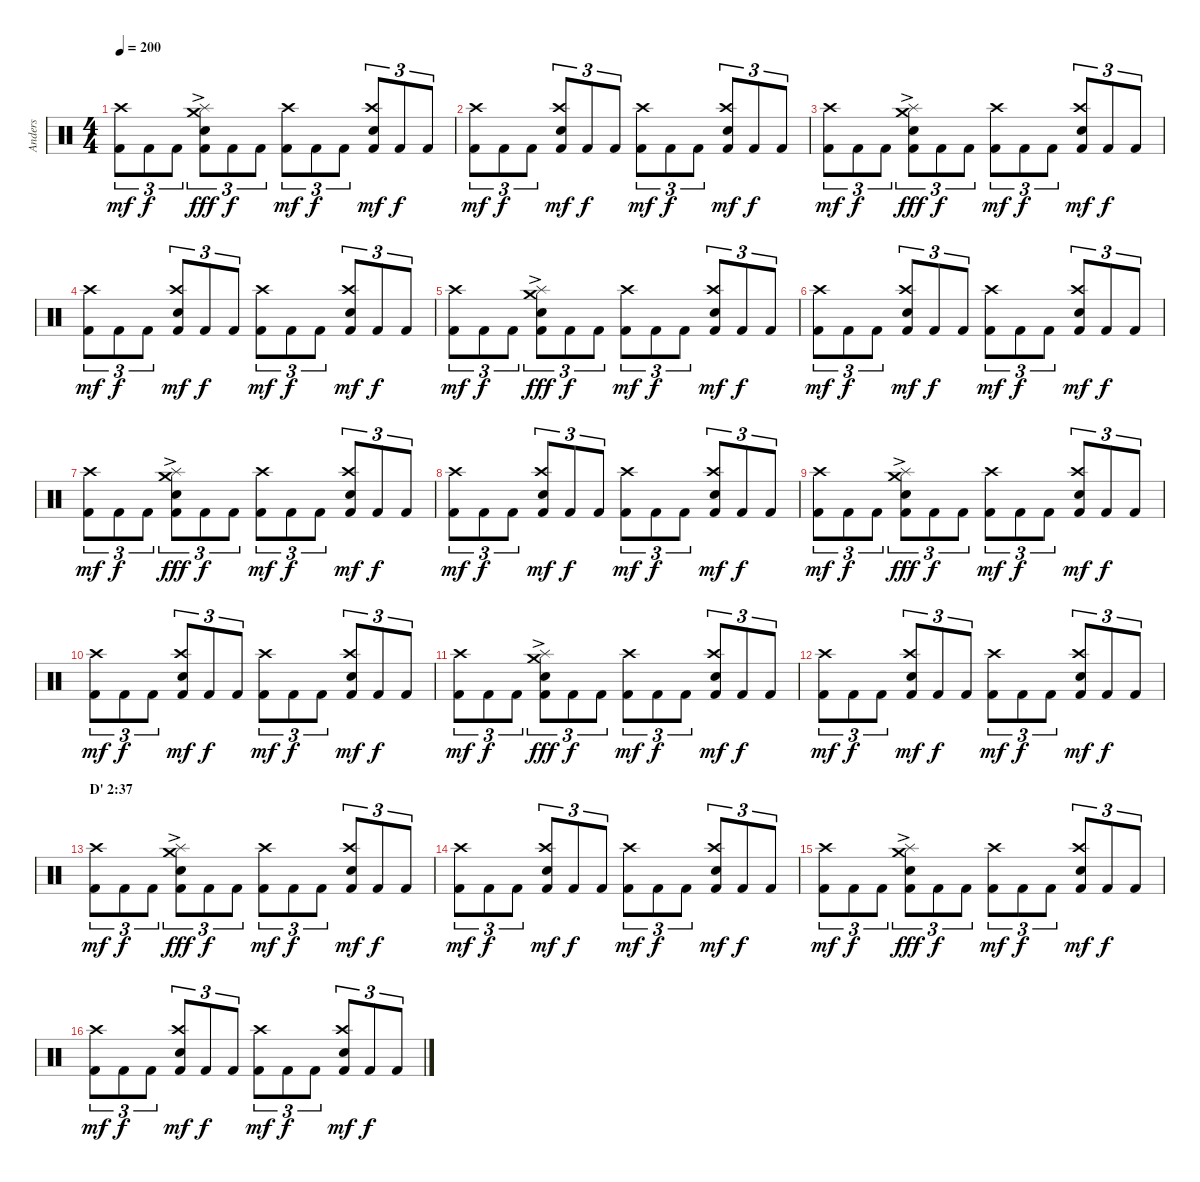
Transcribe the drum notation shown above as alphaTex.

\track ("Anders" "Anders") {instrument percussion}
\staff {score}
\articulation defaults
\ts (4 4)
\tempo 200
\clef neutral
\ks c
("Kick (hit) 2" "Crash high (hit)").8{tu (3 2) dy mf} "Kick (hit) 2".8{tu (3 2) dy f} "Kick (hit) 2".8{tu (3 2)} ("Kick (hit) 2" "Electric Snare (hit)" "Splash (hit)" "Crash medium (hit)"{ac}).8{tu (3 2) dy fff} "Kick (hit) 2".8{tu (3 2) dy f} "Kick (hit) 2".8{tu (3 2)} ("Kick (hit) 2" "Crash high (hit)").8{tu (3 2) dy mf} "Kick (hit) 2".8{tu (3 2) dy f} "Kick (hit) 2".8{tu (3 2)} ("Kick (hit) 2" "Electric Snare (hit)" "Crash high (hit)").8{tu (3 2) dy mf} "Kick (hit) 2".8{tu (3 2) dy f} "Kick (hit) 2".8{tu (3 2)} |
("Kick (hit) 2" "Crash high (hit)").8{tu (3 2) dy mf} "Kick (hit) 2".8{tu (3 2) dy f} "Kick (hit) 2".8{tu (3 2)} ("Kick (hit) 2" "Electric Snare (hit)" "Crash high (hit)").8{tu (3 2) dy mf} "Kick (hit) 2".8{tu (3 2) dy f} "Kick (hit) 2".8{tu (3 2)} ("Kick (hit) 2" "Crash high (hit)").8{tu (3 2) dy mf} "Kick (hit) 2".8{tu (3 2) dy f} "Kick (hit) 2".8{tu (3 2)} ("Kick (hit) 2" "Electric Snare (hit)" "Crash high (hit)").8{tu (3 2) dy mf} "Kick (hit) 2".8{tu (3 2) dy f} "Kick (hit) 2".8{tu (3 2)} |
("Kick (hit) 2" "Crash high (hit)").8{tu (3 2) dy mf} "Kick (hit) 2".8{tu (3 2) dy f} "Kick (hit) 2".8{tu (3 2)} ("Kick (hit) 2" "Electric Snare (hit)" "Splash (hit)" "Crash medium (hit)"{ac}).8{tu (3 2) dy fff} "Kick (hit) 2".8{tu (3 2) dy f} "Kick (hit) 2".8{tu (3 2)} ("Kick (hit) 2" "Crash high (hit)").8{tu (3 2) dy mf} "Kick (hit) 2".8{tu (3 2) dy f} "Kick (hit) 2".8{tu (3 2)} ("Kick (hit) 2" "Electric Snare (hit)" "Crash high (hit)").8{tu (3 2) dy mf} "Kick (hit) 2".8{tu (3 2) dy f} "Kick (hit) 2".8{tu (3 2)} |
("Kick (hit) 2" "Crash high (hit)").8{tu (3 2) dy mf} "Kick (hit) 2".8{tu (3 2) dy f} "Kick (hit) 2".8{tu (3 2)} ("Kick (hit) 2" "Electric Snare (hit)" "Crash high (hit)").8{tu (3 2) dy mf} "Kick (hit) 2".8{tu (3 2) dy f} "Kick (hit) 2".8{tu (3 2)} ("Kick (hit) 2" "Crash high (hit)").8{tu (3 2) dy mf} "Kick (hit) 2".8{tu (3 2) dy f} "Kick (hit) 2".8{tu (3 2)} ("Kick (hit) 2" "Electric Snare (hit)" "Crash high (hit)").8{tu (3 2) dy mf} "Kick (hit) 2".8{tu (3 2) dy f} "Kick (hit) 2".8{tu (3 2)} |
("Kick (hit) 2" "Crash high (hit)").8{tu (3 2) dy mf} "Kick (hit) 2".8{tu (3 2) dy f} "Kick (hit) 2".8{tu (3 2)} ("Kick (hit) 2" "Electric Snare (hit)" "Splash (hit)" "Crash medium (hit)"{ac}).8{tu (3 2) dy fff} "Kick (hit) 2".8{tu (3 2) dy f} "Kick (hit) 2".8{tu (3 2)} ("Kick (hit) 2" "Crash high (hit)").8{tu (3 2) dy mf} "Kick (hit) 2".8{tu (3 2) dy f} "Kick (hit) 2".8{tu (3 2)} ("Kick (hit) 2" "Electric Snare (hit)" "Crash high (hit)").8{tu (3 2) dy mf} "Kick (hit) 2".8{tu (3 2) dy f} "Kick (hit) 2".8{tu (3 2)} |
("Kick (hit) 2" "Crash high (hit)").8{tu (3 2) dy mf} "Kick (hit) 2".8{tu (3 2) dy f} "Kick (hit) 2".8{tu (3 2)} ("Kick (hit) 2" "Electric Snare (hit)" "Crash high (hit)").8{tu (3 2) dy mf} "Kick (hit) 2".8{tu (3 2) dy f} "Kick (hit) 2".8{tu (3 2)} ("Kick (hit) 2" "Crash high (hit)").8{tu (3 2) dy mf} "Kick (hit) 2".8{tu (3 2) dy f} "Kick (hit) 2".8{tu (3 2)} ("Kick (hit) 2" "Electric Snare (hit)" "Crash high (hit)").8{tu (3 2) dy mf} "Kick (hit) 2".8{tu (3 2) dy f} "Kick (hit) 2".8{tu (3 2)} |
("Kick (hit) 2" "Crash high (hit)").8{tu (3 2) dy mf} "Kick (hit) 2".8{tu (3 2) dy f} "Kick (hit) 2".8{tu (3 2)} ("Kick (hit) 2" "Electric Snare (hit)" "Splash (hit)" "Crash medium (hit)"{ac}).8{tu (3 2) dy fff} "Kick (hit) 2".8{tu (3 2) dy f} "Kick (hit) 2".8{tu (3 2)} ("Kick (hit) 2" "Crash high (hit)").8{tu (3 2) dy mf} "Kick (hit) 2".8{tu (3 2) dy f} "Kick (hit) 2".8{tu (3 2)} ("Kick (hit) 2" "Electric Snare (hit)" "Crash high (hit)").8{tu (3 2) dy mf} "Kick (hit) 2".8{tu (3 2) dy f} "Kick (hit) 2".8{tu (3 2)} |
("Kick (hit) 2" "Crash high (hit)").8{tu (3 2) dy mf} "Kick (hit) 2".8{tu (3 2) dy f} "Kick (hit) 2".8{tu (3 2)} ("Kick (hit) 2" "Electric Snare (hit)" "Crash high (hit)").8{tu (3 2) dy mf} "Kick (hit) 2".8{tu (3 2) dy f} "Kick (hit) 2".8{tu (3 2)} ("Kick (hit) 2" "Crash high (hit)").8{tu (3 2) dy mf} "Kick (hit) 2".8{tu (3 2) dy f} "Kick (hit) 2".8{tu (3 2)} ("Kick (hit) 2" "Electric Snare (hit)" "Crash high (hit)").8{tu (3 2) dy mf} "Kick (hit) 2".8{tu (3 2) dy f} "Kick (hit) 2".8{tu (3 2)} |
("Kick (hit) 2" "Crash high (hit)").8{tu (3 2) dy mf} "Kick (hit) 2".8{tu (3 2) dy f} "Kick (hit) 2".8{tu (3 2)} ("Kick (hit) 2" "Electric Snare (hit)" "Splash (hit)" "Crash medium (hit)"{ac}).8{tu (3 2) dy fff} "Kick (hit) 2".8{tu (3 2) dy f} "Kick (hit) 2".8{tu (3 2)} ("Kick (hit) 2" "Crash high (hit)").8{tu (3 2) dy mf} "Kick (hit) 2".8{tu (3 2) dy f} "Kick (hit) 2".8{tu (3 2)} ("Kick (hit) 2" "Electric Snare (hit)" "Crash high (hit)").8{tu (3 2) dy mf} "Kick (hit) 2".8{tu (3 2) dy f} "Kick (hit) 2".8{tu (3 2)} |
("Kick (hit) 2" "Crash high (hit)").8{tu (3 2) dy mf} "Kick (hit) 2".8{tu (3 2) dy f} "Kick (hit) 2".8{tu (3 2)} ("Kick (hit) 2" "Electric Snare (hit)" "Crash high (hit)").8{tu (3 2) dy mf} "Kick (hit) 2".8{tu (3 2) dy f} "Kick (hit) 2".8{tu (3 2)} ("Kick (hit) 2" "Crash high (hit)").8{tu (3 2) dy mf} "Kick (hit) 2".8{tu (3 2) dy f} "Kick (hit) 2".8{tu (3 2)} ("Kick (hit) 2" "Electric Snare (hit)" "Crash high (hit)").8{tu (3 2) dy mf} "Kick (hit) 2".8{tu (3 2) dy f} "Kick (hit) 2".8{tu (3 2)} |
("Kick (hit) 2" "Crash high (hit)").8{tu (3 2) dy mf} "Kick (hit) 2".8{tu (3 2) dy f} "Kick (hit) 2".8{tu (3 2)} ("Kick (hit) 2" "Electric Snare (hit)" "Splash (hit)" "Crash medium (hit)"{ac}).8{tu (3 2) dy fff} "Kick (hit) 2".8{tu (3 2) dy f} "Kick (hit) 2".8{tu (3 2)} ("Kick (hit) 2" "Crash high (hit)").8{tu (3 2) dy mf} "Kick (hit) 2".8{tu (3 2) dy f} "Kick (hit) 2".8{tu (3 2)} ("Kick (hit) 2" "Electric Snare (hit)" "Crash high (hit)").8{tu (3 2) dy mf} "Kick (hit) 2".8{tu (3 2) dy f} "Kick (hit) 2".8{tu (3 2)} |
("Kick (hit) 2" "Crash high (hit)").8{tu (3 2) dy mf} "Kick (hit) 2".8{tu (3 2) dy f} "Kick (hit) 2".8{tu (3 2)} ("Kick (hit) 2" "Electric Snare (hit)" "Crash high (hit)").8{tu (3 2) dy mf} "Kick (hit) 2".8{tu (3 2) dy f} "Kick (hit) 2".8{tu (3 2)} ("Kick (hit) 2" "Crash high (hit)").8{tu (3 2) dy mf} "Kick (hit) 2".8{tu (3 2) dy f} "Kick (hit) 2".8{tu (3 2)} ("Kick (hit) 2" "Electric Snare (hit)" "Crash high (hit)").8{tu (3 2) dy mf} "Kick (hit) 2".8{tu (3 2) dy f} "Kick (hit) 2".8{tu (3 2)} |
\section ("" "D' 2:37")
("Kick (hit) 2" "Crash high (hit)").8{tu (3 2) dy mf} "Kick (hit) 2".8{tu (3 2) dy f} "Kick (hit) 2".8{tu (3 2)} ("Kick (hit) 2" "Electric Snare (hit)" "Splash (hit)" "Crash medium (hit)"{ac}).8{tu (3 2) dy fff} "Kick (hit) 2".8{tu (3 2) dy f} "Kick (hit) 2".8{tu (3 2)} ("Kick (hit) 2" "Crash high (hit)").8{tu (3 2) dy mf} "Kick (hit) 2".8{tu (3 2) dy f} "Kick (hit) 2".8{tu (3 2)} ("Kick (hit) 2" "Electric Snare (hit)" "Crash high (hit)").8{tu (3 2) dy mf} "Kick (hit) 2".8{tu (3 2) dy f} "Kick (hit) 2".8{tu (3 2)} |
("Kick (hit) 2" "Crash high (hit)").8{tu (3 2) dy mf} "Kick (hit) 2".8{tu (3 2) dy f} "Kick (hit) 2".8{tu (3 2)} ("Kick (hit) 2" "Electric Snare (hit)" "Crash high (hit)").8{tu (3 2) dy mf} "Kick (hit) 2".8{tu (3 2) dy f} "Kick (hit) 2".8{tu (3 2)} ("Kick (hit) 2" "Crash high (hit)").8{tu (3 2) dy mf} "Kick (hit) 2".8{tu (3 2) dy f} "Kick (hit) 2".8{tu (3 2)} ("Kick (hit) 2" "Electric Snare (hit)" "Crash high (hit)").8{tu (3 2) dy mf} "Kick (hit) 2".8{tu (3 2) dy f} "Kick (hit) 2".8{tu (3 2)} |
("Kick (hit) 2" "Crash high (hit)").8{tu (3 2) dy mf} "Kick (hit) 2".8{tu (3 2) dy f} "Kick (hit) 2".8{tu (3 2)} ("Kick (hit) 2" "Electric Snare (hit)" "Splash (hit)" "Crash medium (hit)"{ac}).8{tu (3 2) dy fff} "Kick (hit) 2".8{tu (3 2) dy f} "Kick (hit) 2".8{tu (3 2)} ("Kick (hit) 2" "Crash high (hit)").8{tu (3 2) dy mf} "Kick (hit) 2".8{tu (3 2) dy f} "Kick (hit) 2".8{tu (3 2)} ("Kick (hit) 2" "Electric Snare (hit)" "Crash high (hit)").8{tu (3 2) dy mf} "Kick (hit) 2".8{tu (3 2) dy f} "Kick (hit) 2".8{tu (3 2)} |
("Kick (hit) 2" "Crash high (hit)").8{tu (3 2) dy mf} "Kick (hit) 2".8{tu (3 2) dy f} "Kick (hit) 2".8{tu (3 2)} ("Kick (hit) 2" "Electric Snare (hit)" "Crash high (hit)").8{tu (3 2) dy mf} "Kick (hit) 2".8{tu (3 2) dy f} "Kick (hit) 2".8{tu (3 2)} ("Kick (hit) 2" "Crash high (hit)").8{tu (3 2) dy mf} "Kick (hit) 2".8{tu (3 2) dy f} "Kick (hit) 2".8{tu (3 2)} ("Kick (hit) 2" "Electric Snare (hit)" "Crash high (hit)").8{tu (3 2) dy mf} "Kick (hit) 2".8{tu (3 2) dy f} "Kick (hit) 2".8{tu (3 2)}
